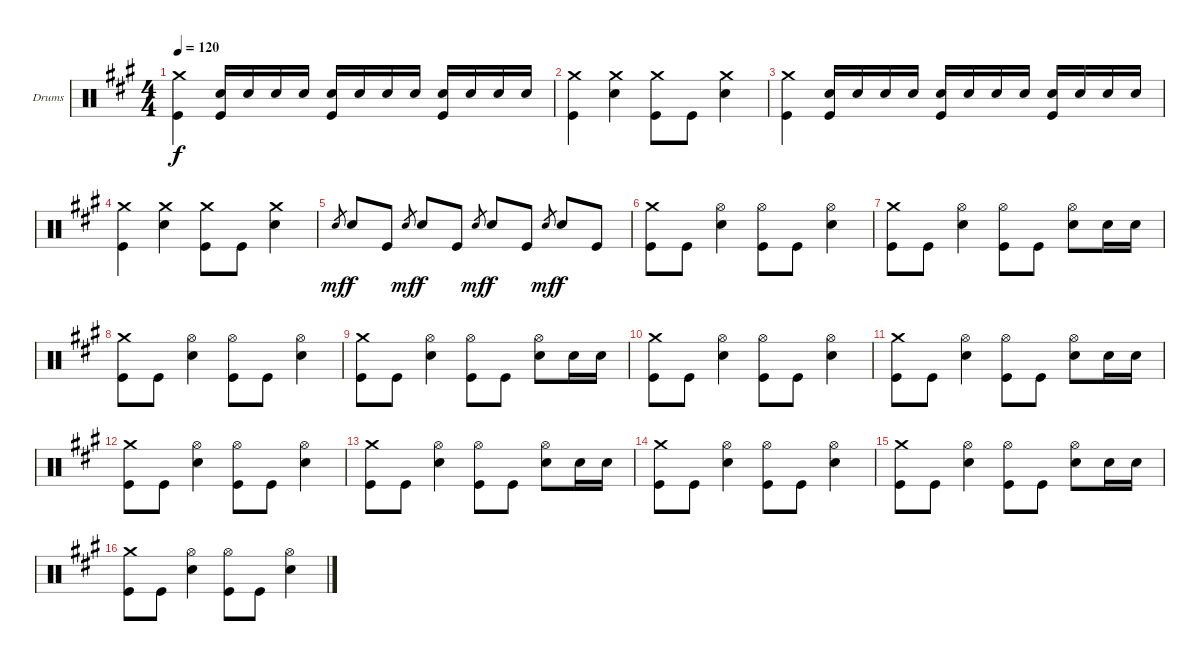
\defaultSystemsLayout 4
\bracketExtendMode groupsimilarinstruments
\firstSystemTrackNameOrientation horizontal
\otherSystemsTrackNameOrientation horizontal
\track ("Drum" "Drums") {instrument percussion}
\staff {score}
\articulation defaults
\ts (4 4)
\tempo 120
\clef neutral
\scale
1.05801
\ks a
("Crash medium (hit)" "Kick (hit)").4{dy f} ("Kick (hit)" "Snare (hit) 2").16 "Snare (hit) 2".16 "Snare (hit) 2".16 "Snare (hit) 2".16 ("Kick (hit)" "Snare (hit) 2").16 "Snare (hit) 2".16 "Snare (hit) 2".16 "Snare (hit) 2".16 ("Kick (hit)" "Snare (hit) 2").16 "Snare (hit) 2".16 "Snare (hit) 2".16 "Snare (hit) 2".16 |
\scale
0.941992 ("Crash medium (hit)" "Kick (hit)").4 ("Crash medium (hit)" "Snare (hit) 2").4 ("Crash medium (hit)" "Kick (hit)").8 "Kick (hit)".8 ("Crash medium (hit)" "Snare (hit) 2").4 |
\scale
1.05801 ("Crash medium (hit)" "Kick (hit)").4 ("Kick (hit)" "Snare (hit) 2").16 "Snare (hit) 2".16 "Snare (hit) 2".16 "Snare (hit) 2".16 ("Kick (hit)" "Snare (hit) 2").16 "Snare (hit) 2".16 "Snare (hit) 2".16 "Snare (hit) 2".16 ("Kick (hit)" "Snare (hit) 2").16 "Snare (hit) 2".16 "Snare (hit) 2".16 "Snare (hit) 2".16 |
\scale
0.941992 ("Crash medium (hit)" "Kick (hit)").4 ("Crash medium (hit)" "Snare (hit) 2").4 ("Crash medium (hit)" "Kick (hit)").8 "Kick (hit)".8 ("Crash medium (hit)" "Snare (hit) 2").4 |
\scale
1.05801 "Snare (hit) 2".8{gr dy mf} "Snare (hit) 2".8{dy f} "Kick (hit)".8 "Snare (hit) 2".8{gr dy mf} "Snare (hit) 2".8{dy f} "Kick (hit)".8 "Snare (hit) 2".8{gr dy mf} "Snare (hit) 2".8{dy f} "Kick (hit)".8 "Snare (hit) 2".8{gr dy mf} "Snare (hit) 2".8{dy f} "Kick (hit)".8 |
\scale
0.941992 ("Crash medium (hit)" "Kick (hit)").8 "Kick (hit)".8 ("Hi-Hat (open)" "Snare (hit) 2").4 ("Hi-Hat (open)" "Kick (hit)").8 "Kick (hit)".8 ("Hi-Hat (open)" "Snare (hit) 2").4 |
\scale
1.05801 ("Crash medium (hit)" "Kick (hit)").8 "Kick (hit)".8 ("Hi-Hat (open)" "Snare (hit) 2").4 ("Hi-Hat (open)" "Kick (hit)").8 "Kick (hit)".8 ("Hi-Hat (open)" "Snare (hit) 2").8 "Snare (hit) 2".16 "Snare (hit) 2".16 |
\scale
0.941992 ("Crash medium (hit)" "Kick (hit)").8 "Kick (hit)".8 ("Hi-Hat (open)" "Snare (hit) 2").4 ("Hi-Hat (open)" "Kick (hit)").8 "Kick (hit)".8 ("Hi-Hat (open)" "Snare (hit) 2").4 |
\scale
1.05801 ("Crash medium (hit)" "Kick (hit)").8 "Kick (hit)".8 ("Hi-Hat (open)" "Snare (hit) 2").4 ("Hi-Hat (open)" "Kick (hit)").8 "Kick (hit)".8 ("Hi-Hat (open)" "Snare (hit) 2").8 "Snare (hit) 2".16 "Snare (hit) 2".16 |
\scale
0.941992 ("Crash medium (hit)" "Kick (hit)").8 "Kick (hit)".8 ("Hi-Hat (open)" "Snare (hit) 2").4 ("Hi-Hat (open)" "Kick (hit)").8 "Kick (hit)".8 ("Hi-Hat (open)" "Snare (hit) 2").4 |
\scale
1.05801 ("Crash medium (hit)" "Kick (hit)").8 "Kick (hit)".8 ("Hi-Hat (open)" "Snare (hit) 2").4 ("Hi-Hat (open)" "Kick (hit)").8 "Kick (hit)".8 ("Hi-Hat (open)" "Snare (hit) 2").8 "Snare (hit) 2".16 "Snare (hit) 2".16 |
\scale
0.941992 ("Crash medium (hit)" "Kick (hit)").8 "Kick (hit)".8 ("Hi-Hat (open)" "Snare (hit) 2").4 ("Hi-Hat (open)" "Kick (hit)").8 "Kick (hit)".8 ("Hi-Hat (open)" "Snare (hit) 2").4 |
\scale
1.05801 ("Crash medium (hit)" "Kick (hit)").8 "Kick (hit)".8 ("Hi-Hat (open)" "Snare (hit) 2").4 ("Hi-Hat (open)" "Kick (hit)").8 "Kick (hit)".8 ("Hi-Hat (open)" "Snare (hit) 2").8 "Snare (hit) 2".16 "Snare (hit) 2".16 |
\scale
0.941992 ("Crash medium (hit)" "Kick (hit)").8 "Kick (hit)".8 ("Hi-Hat (open)" "Snare (hit) 2").4 ("Hi-Hat (open)" "Kick (hit)").8 "Kick (hit)".8 ("Hi-Hat (open)" "Snare (hit) 2").4 |
\scale
1.05801 ("Crash medium (hit)" "Kick (hit)").8 "Kick (hit)".8 ("Hi-Hat (open)" "Snare (hit) 2").4 ("Hi-Hat (open)" "Kick (hit)").8 "Kick (hit)".8 ("Hi-Hat (open)" "Snare (hit) 2").8 "Snare (hit) 2".16 "Snare (hit) 2".16 |
\scale
0.941992 ("Crash medium (hit)" "Kick (hit)").8 "Kick (hit)".8 ("Hi-Hat (open)" "Snare (hit) 2").4 ("Hi-Hat (open)" "Kick (hit)").8 "Kick (hit)".8 ("Hi-Hat (open)" "Snare (hit) 2").4
